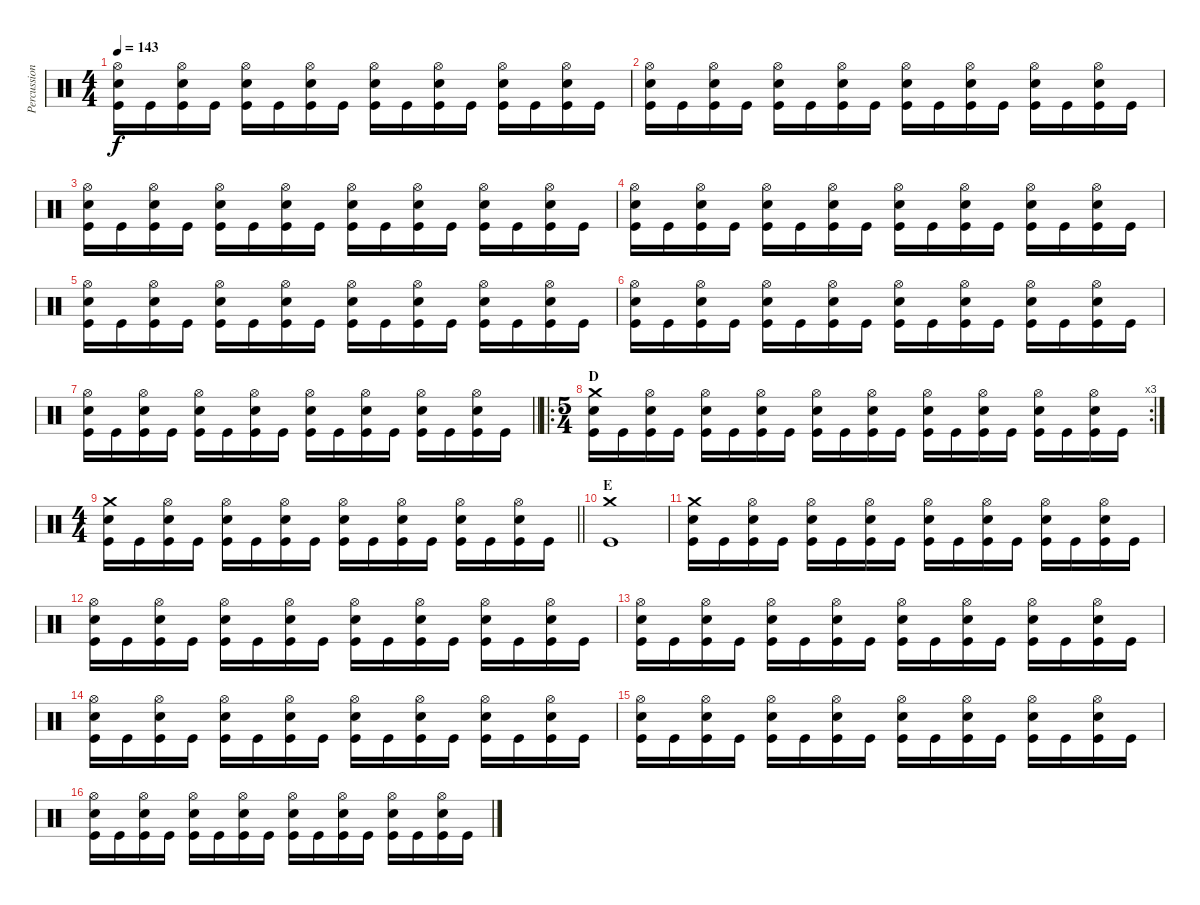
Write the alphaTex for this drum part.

\track ("Percussion" "Percussion") {instrument percussion}
\staff {score}
\articulation defaults
\ts (4 4)
\tempo 143
\clef neutral
\ks c
("Kick (hit)" "Snare (hit) 2" "Hi-Hat (open)").16{dy f} "Kick (hit)".16 ("Kick (hit)" "Snare (hit) 2" "Hi-Hat (open)").16 "Kick (hit)".16 ("Kick (hit)" "Snare (hit) 2" "Hi-Hat (open)").16 "Kick (hit)".16 ("Kick (hit)" "Snare (hit) 2" "Hi-Hat (open)").16 "Kick (hit)".16 ("Kick (hit)" "Snare (hit) 2" "Hi-Hat (open)").16 "Kick (hit)".16 ("Kick (hit)" "Snare (hit) 2" "Hi-Hat (open)").16 "Kick (hit)".16 ("Kick (hit)" "Snare (hit) 2" "Hi-Hat (open)").16 "Kick (hit)".16 ("Kick (hit)" "Snare (hit) 2" "Hi-Hat (open)").16 "Kick (hit)".16 |
("Kick (hit)" "Snare (hit) 2" "Hi-Hat (open)").16 "Kick (hit)".16 ("Kick (hit)" "Snare (hit) 2" "Hi-Hat (open)").16 "Kick (hit)".16 ("Kick (hit)" "Snare (hit) 2" "Hi-Hat (open)").16 "Kick (hit)".16 ("Kick (hit)" "Snare (hit) 2" "Hi-Hat (open)").16 "Kick (hit)".16 ("Kick (hit)" "Snare (hit) 2" "Hi-Hat (open)").16 "Kick (hit)".16 ("Kick (hit)" "Snare (hit) 2" "Hi-Hat (open)").16 "Kick (hit)".16 ("Kick (hit)" "Snare (hit) 2" "Hi-Hat (open)").16 "Kick (hit)".16 ("Kick (hit)" "Snare (hit) 2" "Hi-Hat (open)").16 "Kick (hit)".16 |
("Kick (hit)" "Snare (hit) 2" "Hi-Hat (open)").16 "Kick (hit)".16 ("Kick (hit)" "Snare (hit) 2" "Hi-Hat (open)").16 "Kick (hit)".16 ("Kick (hit)" "Snare (hit) 2" "Hi-Hat (open)").16 "Kick (hit)".16 ("Kick (hit)" "Snare (hit) 2" "Hi-Hat (open)").16 "Kick (hit)".16 ("Kick (hit)" "Snare (hit) 2" "Hi-Hat (open)").16 "Kick (hit)".16 ("Kick (hit)" "Snare (hit) 2" "Hi-Hat (open)").16 "Kick (hit)".16 ("Kick (hit)" "Snare (hit) 2" "Hi-Hat (open)").16 "Kick (hit)".16 ("Kick (hit)" "Snare (hit) 2" "Hi-Hat (open)").16 "Kick (hit)".16 |
("Kick (hit)" "Snare (hit) 2" "Hi-Hat (open)").16 "Kick (hit)".16 ("Kick (hit)" "Snare (hit) 2" "Hi-Hat (open)").16 "Kick (hit)".16 ("Kick (hit)" "Snare (hit) 2" "Hi-Hat (open)").16 "Kick (hit)".16 ("Kick (hit)" "Snare (hit) 2" "Hi-Hat (open)").16 "Kick (hit)".16 ("Kick (hit)" "Snare (hit) 2" "Hi-Hat (open)").16 "Kick (hit)".16 ("Kick (hit)" "Snare (hit) 2" "Hi-Hat (open)").16 "Kick (hit)".16 ("Kick (hit)" "Snare (hit) 2" "Hi-Hat (open)").16 "Kick (hit)".16 ("Kick (hit)" "Snare (hit) 2" "Hi-Hat (open)").16 "Kick (hit)".16 |
("Kick (hit)" "Snare (hit) 2" "Hi-Hat (open)").16 "Kick (hit)".16 ("Kick (hit)" "Snare (hit) 2" "Hi-Hat (open)").16 "Kick (hit)".16 ("Kick (hit)" "Snare (hit) 2" "Hi-Hat (open)").16 "Kick (hit)".16 ("Kick (hit)" "Snare (hit) 2" "Hi-Hat (open)").16 "Kick (hit)".16 ("Kick (hit)" "Snare (hit) 2" "Hi-Hat (open)").16 "Kick (hit)".16 ("Kick (hit)" "Snare (hit) 2" "Hi-Hat (open)").16 "Kick (hit)".16 ("Kick (hit)" "Snare (hit) 2" "Hi-Hat (open)").16 "Kick (hit)".16 ("Kick (hit)" "Snare (hit) 2" "Hi-Hat (open)").16 "Kick (hit)".16 |
("Kick (hit)" "Snare (hit) 2" "Hi-Hat (open)").16 "Kick (hit)".16 ("Kick (hit)" "Snare (hit) 2" "Hi-Hat (open)").16 "Kick (hit)".16 ("Kick (hit)" "Snare (hit) 2" "Hi-Hat (open)").16 "Kick (hit)".16 ("Kick (hit)" "Snare (hit) 2" "Hi-Hat (open)").16 "Kick (hit)".16 ("Kick (hit)" "Snare (hit) 2" "Hi-Hat (open)").16 "Kick (hit)".16 ("Kick (hit)" "Snare (hit) 2" "Hi-Hat (open)").16 "Kick (hit)".16 ("Kick (hit)" "Snare (hit) 2" "Hi-Hat (open)").16 "Kick (hit)".16 ("Kick (hit)" "Snare (hit) 2" "Hi-Hat (open)").16 "Kick (hit)".16 |
\barLineRight lightlight
("Kick (hit)" "Snare (hit) 2" "Hi-Hat (open)").16 "Kick (hit)".16 ("Kick (hit)" "Snare (hit) 2" "Hi-Hat (open)").16 "Kick (hit)".16 ("Kick (hit)" "Snare (hit) 2" "Hi-Hat (open)").16 "Kick (hit)".16 ("Kick (hit)" "Snare (hit) 2" "Hi-Hat (open)").16 "Kick (hit)".16 ("Kick (hit)" "Snare (hit) 2" "Hi-Hat (open)").16 "Kick (hit)".16 ("Kick (hit)" "Snare (hit) 2" "Hi-Hat (open)").16 "Kick (hit)".16 ("Kick (hit)" "Snare (hit) 2" "Hi-Hat (open)").16 "Kick (hit)".16 ("Kick (hit)" "Snare (hit) 2" "Hi-Hat (open)").16 "Kick (hit)".16 |
\ro
\rc 3
\ts (5 4)
\section ("" "D")
("Kick (hit)" "Snare (hit) 2" "Crash medium (hit)").16 "Kick (hit)".16 ("Kick (hit)" "Snare (hit) 2" "Hi-Hat (open)").16 "Kick (hit)".16 ("Kick (hit)" "Snare (hit) 2" "Hi-Hat (open)").16 "Kick (hit)".16 ("Kick (hit)" "Snare (hit) 2" "Hi-Hat (open)").16 "Kick (hit)".16 ("Kick (hit)" "Snare (hit) 2" "Hi-Hat (open)").16 "Kick (hit)".16 ("Kick (hit)" "Snare (hit) 2" "Hi-Hat (open)").16 "Kick (hit)".16 ("Kick (hit)" "Snare (hit) 2" "Hi-Hat (open)").16 "Kick (hit)".16 ("Kick (hit)" "Snare (hit) 2" "Hi-Hat (open)").16 "Kick (hit)".16 ("Kick (hit)" "Snare (hit) 2" "Hi-Hat (open)").16 "Kick (hit)".16 ("Kick (hit)" "Snare (hit) 2" "Hi-Hat (open)").16 "Kick (hit)".16 |
\ts (4 4)
\barLineRight lightlight
("Kick (hit)" "Snare (hit) 2" "Crash medium (hit)").16 "Kick (hit)".16 ("Kick (hit)" "Snare (hit) 2" "Hi-Hat (open)").16 "Kick (hit)".16 ("Kick (hit)" "Snare (hit) 2" "Hi-Hat (open)").16 "Kick (hit)".16 ("Kick (hit)" "Snare (hit) 2" "Hi-Hat (open)").16 "Kick (hit)".16 ("Kick (hit)" "Snare (hit) 2" "Hi-Hat (open)").16 "Kick (hit)".16 ("Kick (hit)" "Snare (hit) 2" "Hi-Hat (open)").16 "Kick (hit)".16 ("Kick (hit)" "Snare (hit) 2" "Hi-Hat (open)").16 "Kick (hit)".16 ("Kick (hit)" "Snare (hit) 2" "Hi-Hat (open)").16 "Kick (hit)".16 |
\section ("" "E")
("Kick (hit)" "Crash medium (hit)").1 |
("Kick (hit)" "Snare (hit) 2" "Crash medium (hit)").16 "Kick (hit)".16 ("Kick (hit)" "Snare (hit) 2" "Hi-Hat (open)").16 "Kick (hit)".16 ("Kick (hit)" "Snare (hit) 2" "Hi-Hat (open)").16 "Kick (hit)".16 ("Kick (hit)" "Snare (hit) 2" "Hi-Hat (open)").16 "Kick (hit)".16 ("Kick (hit)" "Snare (hit) 2" "Hi-Hat (open)").16 "Kick (hit)".16 ("Kick (hit)" "Snare (hit) 2" "Hi-Hat (open)").16 "Kick (hit)".16 ("Kick (hit)" "Snare (hit) 2" "Hi-Hat (open)").16 "Kick (hit)".16 ("Kick (hit)" "Snare (hit) 2" "Hi-Hat (open)").16 "Kick (hit)".16 |
("Kick (hit)" "Snare (hit) 2" "Hi-Hat (open)").16 "Kick (hit)".16 ("Kick (hit)" "Snare (hit) 2" "Hi-Hat (open)").16 "Kick (hit)".16 ("Kick (hit)" "Snare (hit) 2" "Hi-Hat (open)").16 "Kick (hit)".16 ("Kick (hit)" "Snare (hit) 2" "Hi-Hat (open)").16 "Kick (hit)".16 ("Kick (hit)" "Snare (hit) 2" "Hi-Hat (open)").16 "Kick (hit)".16 ("Kick (hit)" "Snare (hit) 2" "Hi-Hat (open)").16 "Kick (hit)".16 ("Kick (hit)" "Snare (hit) 2" "Hi-Hat (open)").16 "Kick (hit)".16 ("Kick (hit)" "Snare (hit) 2" "Hi-Hat (open)").16 "Kick (hit)".16 |
("Kick (hit)" "Snare (hit) 2" "Hi-Hat (open)").16 "Kick (hit)".16 ("Kick (hit)" "Snare (hit) 2" "Hi-Hat (open)").16 "Kick (hit)".16 ("Kick (hit)" "Snare (hit) 2" "Hi-Hat (open)").16 "Kick (hit)".16 ("Kick (hit)" "Snare (hit) 2" "Hi-Hat (open)").16 "Kick (hit)".16 ("Kick (hit)" "Snare (hit) 2" "Hi-Hat (open)").16 "Kick (hit)".16 ("Kick (hit)" "Snare (hit) 2" "Hi-Hat (open)").16 "Kick (hit)".16 ("Kick (hit)" "Snare (hit) 2" "Hi-Hat (open)").16 "Kick (hit)".16 ("Kick (hit)" "Snare (hit) 2" "Hi-Hat (open)").16 "Kick (hit)".16 |
("Kick (hit)" "Snare (hit) 2" "Hi-Hat (open)").16 "Kick (hit)".16 ("Kick (hit)" "Snare (hit) 2" "Hi-Hat (open)").16 "Kick (hit)".16 ("Kick (hit)" "Snare (hit) 2" "Hi-Hat (open)").16 "Kick (hit)".16 ("Kick (hit)" "Snare (hit) 2" "Hi-Hat (open)").16 "Kick (hit)".16 ("Kick (hit)" "Snare (hit) 2" "Hi-Hat (open)").16 "Kick (hit)".16 ("Kick (hit)" "Snare (hit) 2" "Hi-Hat (open)").16 "Kick (hit)".16 ("Kick (hit)" "Snare (hit) 2" "Hi-Hat (open)").16 "Kick (hit)".16 ("Kick (hit)" "Snare (hit) 2" "Hi-Hat (open)").16 "Kick (hit)".16 |
("Kick (hit)" "Snare (hit) 2" "Hi-Hat (open)").16 "Kick (hit)".16 ("Kick (hit)" "Snare (hit) 2" "Hi-Hat (open)").16 "Kick (hit)".16 ("Kick (hit)" "Snare (hit) 2" "Hi-Hat (open)").16 "Kick (hit)".16 ("Kick (hit)" "Snare (hit) 2" "Hi-Hat (open)").16 "Kick (hit)".16 ("Kick (hit)" "Snare (hit) 2" "Hi-Hat (open)").16 "Kick (hit)".16 ("Kick (hit)" "Snare (hit) 2" "Hi-Hat (open)").16 "Kick (hit)".16 ("Kick (hit)" "Snare (hit) 2" "Hi-Hat (open)").16 "Kick (hit)".16 ("Kick (hit)" "Snare (hit) 2" "Hi-Hat (open)").16 "Kick (hit)".16 |
("Kick (hit)" "Snare (hit) 2" "Hi-Hat (open)").16 "Kick (hit)".16 ("Kick (hit)" "Snare (hit) 2" "Hi-Hat (open)").16 "Kick (hit)".16 ("Kick (hit)" "Snare (hit) 2" "Hi-Hat (open)").16 "Kick (hit)".16 ("Kick (hit)" "Snare (hit) 2" "Hi-Hat (open)").16 "Kick (hit)".16 ("Kick (hit)" "Snare (hit) 2" "Hi-Hat (open)").16 "Kick (hit)".16 ("Kick (hit)" "Snare (hit) 2" "Hi-Hat (open)").16 "Kick (hit)".16 ("Kick (hit)" "Snare (hit) 2" "Hi-Hat (open)").16 "Kick (hit)".16 ("Kick (hit)" "Snare (hit) 2" "Hi-Hat (open)").16 "Kick (hit)".16
